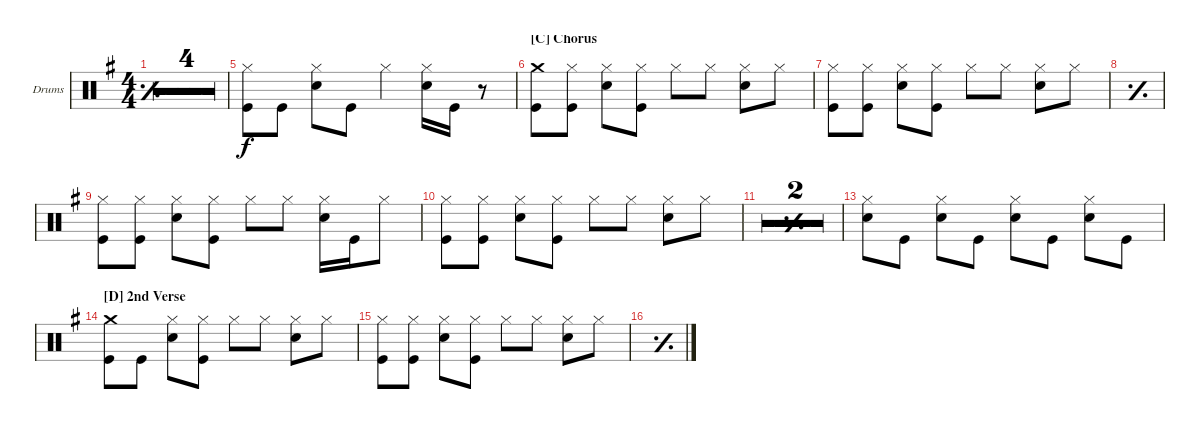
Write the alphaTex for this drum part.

\defaultSystemsLayout 4
\bracketExtendMode groupsimilarinstruments
\firstSystemTrackNameOrientation horizontal
\otherSystemsTrackNameOrientation horizontal
\track ("Matt Helders " "Drums") {multiBarRest instrument percussion}
\staff {score}
\articulation defaults
\ts (4 4)
\tempo 90
\clef neutral
\simile simple
\ks g
|
|
|
|
("Kick (hit)" "Hi-Hat (closed)").8 "Kick (hit)".8 ("Snare (hit) 2" "Hi-Hat (closed)").8 "Kick (hit)".8 "Hi-Hat (closed)".4 ("Snare (hit) 2" "Hi-Hat (closed)").16 "Kick (hit)".16 r.8 |
\section ("C" "Chorus")
("Kick (hit)" "Crash medium (hit)").8 ("Kick (hit)" "Hi-Hat (closed)").8 ("Snare (hit) 2" "Hi-Hat (closed)").8 ("Kick (hit)" "Hi-Hat (closed)").8 "Hi-Hat (closed)".8 "Hi-Hat (closed)".8 ("Snare (hit) 2" "Hi-Hat (closed)").8 "Hi-Hat (closed)".8 |
("Kick (hit)" "Hi-Hat (closed)").8 ("Kick (hit)" "Hi-Hat (closed)").8 ("Snare (hit) 2" "Hi-Hat (closed)").8 ("Kick (hit)" "Hi-Hat (closed)").8 "Hi-Hat (closed)".8 "Hi-Hat (closed)".8 ("Snare (hit) 2" "Hi-Hat (closed)").8 "Hi-Hat (closed)".8 |
\simile simple
|
\simile none
("Kick (hit)" "Hi-Hat (closed)").8 ("Kick (hit)" "Hi-Hat (closed)").8 ("Snare (hit) 2" "Hi-Hat (closed)").8 ("Kick (hit)" "Hi-Hat (closed)").8 "Hi-Hat (closed)".8 "Hi-Hat (closed)".8 ("Snare (hit) 2" "Hi-Hat (closed)").16 "Kick (hit)".16 "Hi-Hat (closed)".8 |
("Kick (hit)" "Hi-Hat (closed)").8 ("Kick (hit)" "Hi-Hat (closed)").8 ("Snare (hit) 2" "Hi-Hat (closed)").8 ("Kick (hit)" "Hi-Hat (closed)").8 "Hi-Hat (closed)".8 "Hi-Hat (closed)".8 ("Snare (hit) 2" "Hi-Hat (closed)").8 "Hi-Hat (closed)".8 |
\simile simple
|
|
\simile none
("Snare (hit) 2" "Hi-Hat (closed)").8 "Kick (hit)".8 ("Snare (hit) 2" "Hi-Hat (closed)").8 "Kick (hit)".8 ("Snare (hit) 2" "Hi-Hat (closed)").8 "Kick (hit)".8 ("Snare (hit) 2" "Hi-Hat (closed)").8 "Kick (hit)".8 |
\section ("D" "2nd Verse")
("Kick (hit)" "Crash medium (hit)").8 "Kick (hit)".8 ("Snare (hit) 2" "Hi-Hat (closed)").8 ("Kick (hit)" "Hi-Hat (closed)").8 "Hi-Hat (closed)".8 "Hi-Hat (closed)".8 ("Snare (hit) 2" "Hi-Hat (closed)").8 "Hi-Hat (closed)".8 |
("Kick (hit)" "Hi-Hat (closed)").8 ("Kick (hit)" "Hi-Hat (closed)").8 ("Snare (hit) 2" "Hi-Hat (closed)").8 ("Kick (hit)" "Hi-Hat (closed)").8 "Hi-Hat (closed)".8 "Hi-Hat (closed)".8 ("Snare (hit) 2" "Hi-Hat (closed)").8 "Hi-Hat (closed)".8 |
\simile simple
